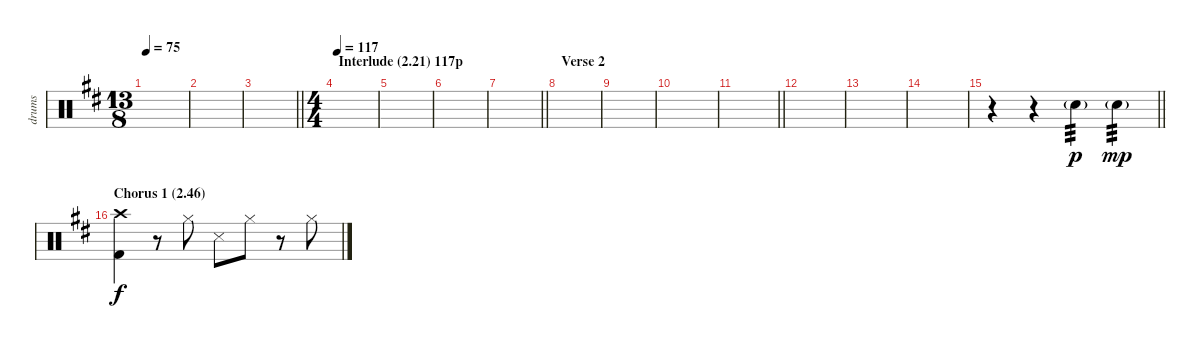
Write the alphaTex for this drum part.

\track ("drums" "drums") {instrument percussion}
\staff {score}
\articulation defaults
\ts (13 8)
\tempo 75
\clef neutral
\ks d
|
|
\barLineRight lightlight
|
\ts (4 4)
\section ("" "Interlude (2.21) 117p")
\tempo 117
|
|
|
\barLineRight lightlight
|
\section ("" "Verse 2")
|
|
|
\barLineRight lightlight
|
|
|
|
\barLineRight lightlight
r.4 r.4 "Electric Snare (hit)"{g}.4{tp 3 dy p} "Electric Snare (hit)"{g}.4{tp 3 dy mp} |
\section ("" "Chorus 1 (2.46)")
("Crash high (hit)" "Kick (hit) 2").4{dy f} r.8 "Hi-Hat (closed)".8 "Snare (side stick) 3".8 "Hi-Hat (closed)".8 r.8 "Hi-Hat (closed)".8
